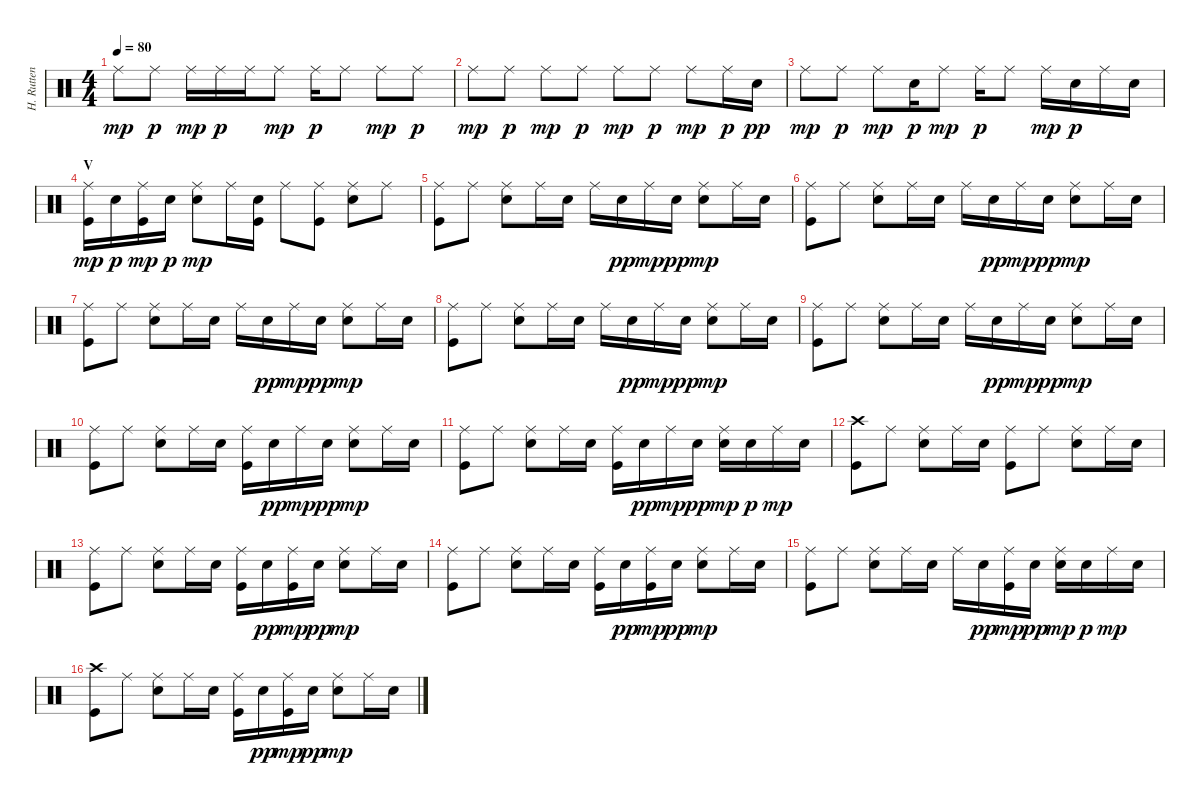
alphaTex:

\track ("H. Rutten" "H. Rutten") {instrument percussion}
\staff {score}
\articulation defaults
\ts (4 4)
\tempo 80
\clef neutral
\ks c "Ride (middle)".8{dy mp} "Ride (middle)".8{dy p} "Ride (middle)".16{dy mp} "Ride (middle)".16{dy p} "Ride (middle)".16 "Ride (middle)".8{dy mp} "Ride (middle)".16{dy p} "Ride (middle)".8 "Ride (middle)".8{dy mp} "Ride (middle)".8{dy p}
|
"Ride (middle)".8{dy mp} "Ride (middle)".8{dy p} "Ride (middle)".8{dy mp} "Ride (middle)".8{dy p} "Ride (middle)".8{dy mp} "Ride (middle)".8{dy p} "Ride (middle)".8{dy mp} "Ride (middle)".16{dy p} "Electric Snare (hit)".16{dy pp} |
"Ride (middle)".8{dy mp} "Ride (middle)".8{dy p} "Ride (middle)".8{dy mp} "Electric Snare (hit)".16{dy p} "Ride (middle)".8{dy mp} "Ride (middle)".16{dy p} "Ride (middle)".8 "Ride (middle)".16{dy mp} "Electric Snare (hit)".16{dy p} "Ride (middle)".16 "Electric Snare (hit)".16 |
\section ("" "V")
("Kick (hit)" "Ride (middle)").16{dy mp} "Electric Snare (hit)".16{dy p} ("Kick (hit)" "Ride (middle)").16{dy mp} "Electric Snare (hit)".16{dy p} ("Electric Snare (hit)" "Ride (middle)").8{dy mp} "Ride (middle)".16 ("Kick (hit)" "Electric Snare (hit)").16 "Ride (middle)".8 ("Kick (hit)" "Ride (middle)").8 ("Electric Snare (hit)" "Ride (middle)").8 "Ride (middle)".8 |
("Kick (hit)" "Ride (middle)").8 "Ride (middle)".8 ("Electric Snare (hit)" "Ride (middle)").8 "Ride (middle)".16 "Electric Snare (hit)".16 "Ride (middle)".16 "Electric Snare (hit)".16{dy pp} "Ride (middle)".16{dy mp} "Electric Snare (hit)".16{dy pp} ("Electric Snare (hit)" "Ride (middle)").8{dy mp} "Ride (middle)".16 "Electric Snare (hit)".16 |
("Kick (hit)" "Ride (middle)").8 "Ride (middle)".8 ("Electric Snare (hit)" "Ride (middle)").8 "Ride (middle)".16 "Electric Snare (hit)".16 "Ride (middle)".16 "Electric Snare (hit)".16{dy pp} "Ride (middle)".16{dy mp} "Electric Snare (hit)".16{dy pp} ("Electric Snare (hit)" "Ride (middle)").8{dy mp} "Ride (middle)".16 "Electric Snare (hit)".16 |
("Kick (hit)" "Ride (middle)").8 "Ride (middle)".8 ("Electric Snare (hit)" "Ride (middle)").8 "Ride (middle)".16 "Electric Snare (hit)".16 "Ride (middle)".16 "Electric Snare (hit)".16{dy pp} "Ride (middle)".16{dy mp} "Electric Snare (hit)".16{dy pp} ("Electric Snare (hit)" "Ride (middle)").8{dy mp} "Ride (middle)".16 "Electric Snare (hit)".16 |
("Kick (hit)" "Ride (middle)").8 "Ride (middle)".8 ("Electric Snare (hit)" "Ride (middle)").8 "Ride (middle)".16 "Electric Snare (hit)".16 "Ride (middle)".16 "Electric Snare (hit)".16{dy pp} "Ride (middle)".16{dy mp} "Electric Snare (hit)".16{dy pp} ("Electric Snare (hit)" "Ride (middle)").8{dy mp} "Ride (middle)".16 "Electric Snare (hit)".16 |
("Kick (hit)" "Ride (middle)").8 "Ride (middle)".8 ("Electric Snare (hit)" "Ride (middle)").8 "Ride (middle)".16 "Electric Snare (hit)".16 "Ride (middle)".16 "Electric Snare (hit)".16{dy pp} "Ride (middle)".16{dy mp} "Electric Snare (hit)".16{dy pp} ("Electric Snare (hit)" "Ride (middle)").8{dy mp} "Ride (middle)".16 "Electric Snare (hit)".16 |
("Kick (hit)" "Ride (middle)").8 "Ride (middle)".8 ("Electric Snare (hit)" "Ride (middle)").8 "Ride (middle)".16 "Electric Snare (hit)".16 ("Kick (hit)" "Ride (middle)").16 "Electric Snare (hit)".16{dy pp} "Ride (middle)".16{dy mp} "Electric Snare (hit)".16{dy pp} ("Electric Snare (hit)" "Ride (middle)").8{dy mp} "Ride (middle)".16 "Electric Snare (hit)".16 |
("Kick (hit)" "Ride (middle)").8 "Ride (middle)".8 ("Electric Snare (hit)" "Ride (middle)").8 "Ride (middle)".16 "Electric Snare (hit)".16 ("Kick (hit)" "Ride (middle)").16 "Electric Snare (hit)".16{dy pp} "Ride (middle)".16{dy mp} "Electric Snare (hit)".16{dy pp} ("Electric Snare (hit)" "Ride (middle)").16{dy mp} "Electric Snare (hit)".16{dy p} "Ride (middle)".16{dy mp} "Electric Snare (hit)".16 |
("Kick (hit)" "Crash high (hit)").8 "Ride (middle)".8 ("Electric Snare (hit)" "Ride (middle)").8 "Ride (middle)".16 "Electric Snare (hit)".16 ("Kick (hit)" "Ride (middle)").8 "Ride (middle)".8 ("Electric Snare (hit)" "Ride (middle)").8 "Ride (middle)".16 "Electric Snare (hit)".16 |
("Kick (hit)" "Ride (middle)").8 "Ride (middle)".8 ("Electric Snare (hit)" "Ride (middle)").8 "Ride (middle)".16 "Electric Snare (hit)".16 ("Kick (hit)" "Ride (middle)").16 "Electric Snare (hit)".16{dy pp} ("Kick (hit)" "Ride (middle)").16{dy mp} "Electric Snare (hit)".16{dy pp} ("Electric Snare (hit)" "Ride (middle)").8{dy mp} "Ride (middle)".16 "Electric Snare (hit)".16 |
("Kick (hit)" "Ride (middle)").8 "Ride (middle)".8 ("Electric Snare (hit)" "Ride (middle)").8 "Ride (middle)".16 "Electric Snare (hit)".16 ("Kick (hit)" "Ride (middle)").16 "Electric Snare (hit)".16{dy pp} ("Kick (hit)" "Ride (middle)").16{dy mp} "Electric Snare (hit)".16{dy pp} ("Electric Snare (hit)" "Ride (middle)").8{dy mp} "Ride (middle)".16 "Electric Snare (hit)".16 |
("Kick (hit)" "Ride (middle)").8 "Ride (middle)".8 ("Electric Snare (hit)" "Ride (middle)").8 "Ride (middle)".16 "Electric Snare (hit)".16 "Ride (middle)".16 "Electric Snare (hit)".16{dy pp} ("Kick (hit)" "Ride (middle)").16{dy mp} "Electric Snare (hit)".16{dy pp} ("Electric Snare (hit)" "Ride (middle)").16{dy mp} "Electric Snare (hit)".16{dy p} "Ride (middle)".16{dy mp} "Electric Snare (hit)".16 |
("Kick (hit)" "Crash high (hit)").8 "Ride (middle)".8 ("Electric Snare (hit)" "Ride (middle)").8 "Ride (middle)".16 "Electric Snare (hit)".16 ("Kick (hit)" "Ride (middle)").16 "Electric Snare (hit)".16{dy pp} ("Kick (hit)" "Ride (middle)").16{dy mp} "Electric Snare (hit)".16{dy pp} ("Electric Snare (hit)" "Ride (middle)").8{dy mp} "Ride (middle)".16 "Electric Snare (hit)".16
